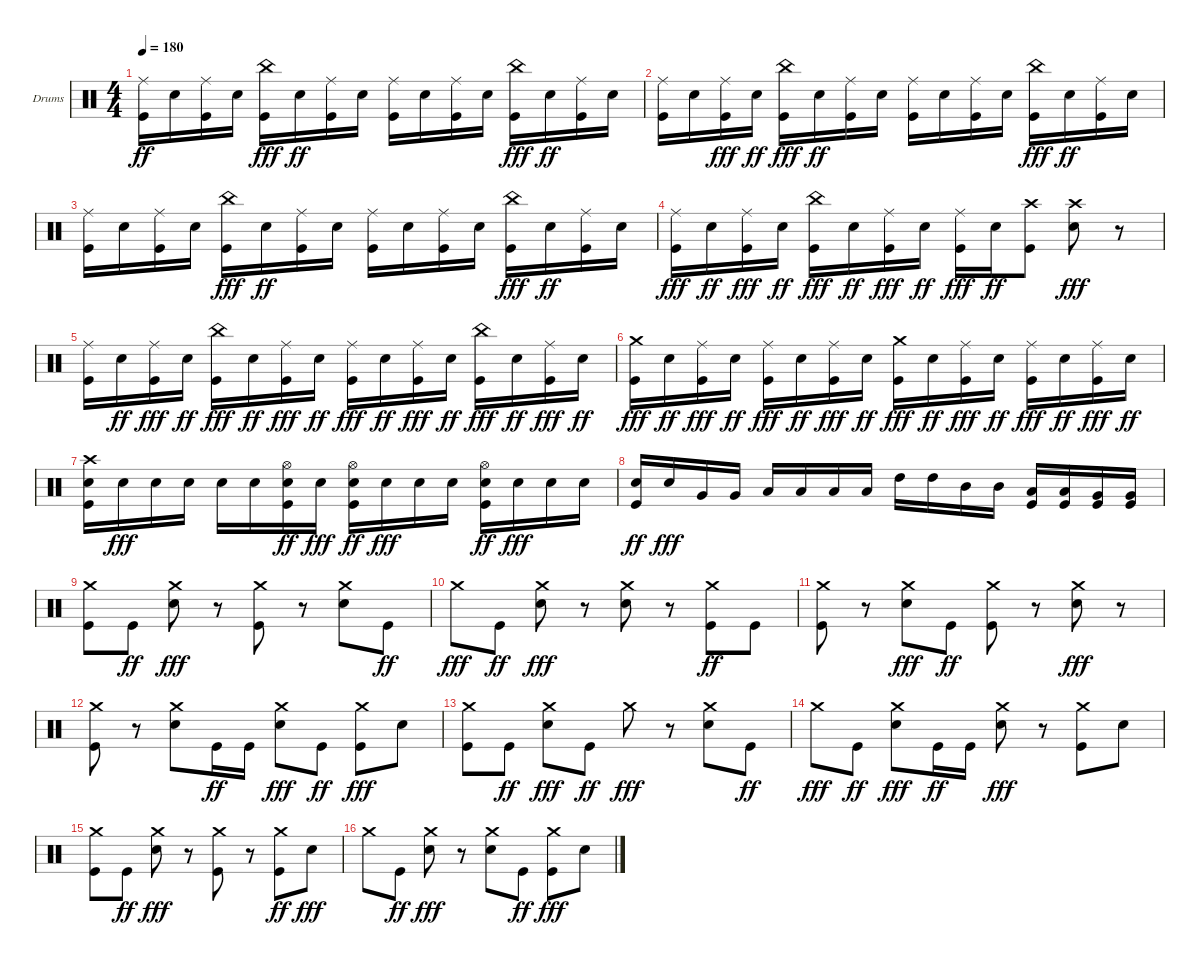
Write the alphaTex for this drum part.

\bracketExtendMode groupsimilarinstruments
\firstSystemTrackNameOrientation horizontal
\otherSystemsTrackNameOrientation horizontal
\track ("Drumkit" "Drums") {instrument percussion}
\staff {score}
\articulation defaults
\ts (4 4)
\tempo 180
\clef neutral
\ks c
("Kick (hit)" "Ride (middle)").16{dy ff} "Snare (hit) 2".16 ("Kick (hit)" "Ride (middle)").16 "Snare (hit) 2".16 ("China (hit)" "Kick (hit)").16{dy fff} "Snare (hit) 2".16{dy ff} ("Kick (hit)" "Ride (middle)").16 "Snare (hit) 2".16 ("Kick (hit)" "Ride (middle)").16 "Snare (hit) 2".16 ("Kick (hit)" "Ride (middle)").16 "Snare (hit) 2".16 ("China (hit)" "Kick (hit)").16{dy fff} "Snare (hit) 2".16{dy ff} ("Kick (hit)" "Ride (middle)").16 "Snare (hit) 2".16 |
("Kick (hit)" "Ride (middle)").16 "Snare (hit) 2".16 ("Ride (middle)" "Kick (hit)").16{dy fff} "Snare (hit) 2".16{dy ff} ("China (hit)" "Kick (hit)").16{dy fff} "Snare (hit) 2".16{dy ff} ("Kick (hit)" "Ride (middle)").16 "Snare (hit) 2".16 ("Kick (hit)" "Ride (middle)").16 "Snare (hit) 2".16 ("Kick (hit)" "Ride (middle)").16 "Snare (hit) 2".16 ("China (hit)" "Kick (hit)").16{dy fff} "Snare (hit) 2".16{dy ff} ("Kick (hit)" "Ride (middle)").16 "Snare (hit) 2".16 |
("Kick (hit)" "Ride (middle)").16 "Snare (hit) 2".16 ("Kick (hit)" "Ride (middle)").16 "Snare (hit) 2".16 ("China (hit)" "Kick (hit)").16{dy fff} "Snare (hit) 2".16{dy ff} ("Kick (hit)" "Ride (middle)").16 "Snare (hit) 2".16 ("Kick (hit)" "Ride (middle)").16 "Snare (hit) 2".16 ("Kick (hit)" "Ride (middle)").16 "Snare (hit) 2".16 ("China (hit)" "Kick (hit)").16{dy fff} "Snare (hit) 2".16{dy ff} ("Kick (hit)" "Ride (middle)").16 "Snare (hit) 2".16 |
("Ride (middle)" "Kick (hit)").16{dy fff} "Snare (hit) 2".16{dy ff} ("Ride (middle)" "Kick (hit)").16{dy fff} "Snare (hit) 2".16{dy ff} ("China (hit)" "Kick (hit)").16{dy fff} "Snare (hit) 2".16{dy ff} ("Ride (middle)" "Kick (hit)").16{dy fff} "Snare (hit) 2".16{dy ff} ("Ride (middle)" "Kick (hit)").16{dy fff} "Snare (hit) 2".16{dy ff} ("Kick (hit)" "Crash high (hit)").8 ("Snare (hit) 2" "Crash high (hit)").8{dy fff} r.8 |
("Ride (middle)" "Kick (hit)").16 "Snare (hit) 2".16{dy ff} ("Ride (middle)" "Kick (hit)").16{dy fff} "Snare (hit) 2".16{dy ff} ("China (hit)" "Kick (hit)").16{dy fff} "Snare (hit) 2".16{dy ff} ("Ride (middle)" "Kick (hit)").16{dy fff} "Snare (hit) 2".16{dy ff} ("Ride (middle)" "Kick (hit)").16{dy fff} "Snare (hit) 2".16{dy ff} ("Ride (middle)" "Kick (hit)").16{dy fff} "Snare (hit) 2".16{dy ff} ("China (hit)" "Kick (hit)").16{dy fff} "Snare (hit) 2".16{dy ff} ("Ride (middle)" "Kick (hit)").16{dy fff} "Snare (hit) 2".16{dy ff} |
("Crash medium (hit)" "Kick (hit)").16{dy fff} "Snare (hit) 2".16{dy ff} ("Ride (middle)" "Kick (hit)").16{dy fff} "Snare (hit) 2".16{dy ff} ("Ride (middle)" "Kick (hit)").16{dy fff} "Snare (hit) 2".16{dy ff} ("Ride (middle)" "Kick (hit)").16{dy fff} "Snare (hit) 2".16{dy ff} ("Crash medium (hit)" "Kick (hit)").16{dy fff} "Snare (hit) 2".16{dy ff} ("Ride (middle)" "Kick (hit)").16{dy fff} "Snare (hit) 2".16{dy ff} ("Ride (middle)" "Kick (hit)").16{dy fff} "Snare (hit) 2".16{dy ff} ("Ride (middle)" "Kick (hit)").16{dy fff} "Snare (hit) 2".16{dy ff} |
("Kick (hit)" "Crash high (hit)" "Snare (hit) 2").16 "Snare (hit) 2".16{dy fff} "Snare (hit) 2".16 "Snare (hit) 2".16 "Snare (hit) 2".16 "Snare (hit) 2".16 ("Kick (hit)" "Hi-Hat (open)" "Snare (hit) 2").16{dy ff} "Snare (hit) 2".16{dy fff} ("Kick (hit)" "Hi-Hat (open)" "Snare (hit) 2").16{dy ff} "Snare (hit) 2".16{dy fff} "Snare (hit) 2".16 "Snare (hit) 2".16 ("Kick (hit)" "Hi-Hat (open)" "Snare (hit) 2").16{dy ff} "Snare (hit) 2".16{dy fff} "Snare (hit) 2".16 "Snare (hit) 2".16 |
("Kick (hit)" "Snare (hit) 2").16{dy ff} "Snare (hit) 2".16{dy fff} "Very Low Tom (hit)".16 "Very Low Tom (hit)".16 "Low Tom (hit)".16 "Low Tom (hit)".16 "Low Tom (hit)".16 "Low Tom (hit)".16 "High Tom (hit)".16 "High Tom (hit)".16 "Mid Tom (hit)".16 "Mid Tom (hit)".16 ("Low Tom (hit)" "Kick (hit)").16 ("Low Tom (hit)" "Kick (hit)").16 ("Very Low Tom (hit)" "Kick (hit)").16 ("Very Low Tom (hit)" "Kick (hit)").16 |
("Crash medium (hit)" "Kick (hit)").8 "Kick (hit)".8{dy ff} ("Crash medium (hit)" "Snare (hit) 2").8{dy fff} r.8 ("Crash medium (hit)" "Kick (hit)").8 r.8 ("Crash medium (hit)" "Snare (hit) 2").8 "Kick (hit)".8{dy ff} |
"Crash medium (hit)".8{dy fff} "Kick (hit)".8{dy ff} ("Crash medium (hit)" "Snare (hit) 2").8{dy fff} r.8 ("Crash medium (hit)" "Snare (hit) 2").8 r.8 ("Kick (hit)" "Crash medium (hit)").8{dy ff} "Kick (hit)".8 |
("Kick (hit)" "Crash medium (hit)").8 r.8 ("Snare (hit) 2" "Crash medium (hit)").8{dy fff} "Kick (hit)".8{dy ff} ("Kick (hit)" "Crash medium (hit)").8 r.8 ("Snare (hit) 2" "Crash medium (hit)").8{dy fff} r.8 |
("Crash medium (hit)" "Kick (hit)").8 r.8 ("Snare (hit) 2" "Crash medium (hit)").8 "Kick (hit)".16{dy ff} "Kick (hit)".16 ("Snare (hit) 2" "Crash medium (hit)").8{dy fff} "Kick (hit)".8{dy ff} ("Crash medium (hit)" "Kick (hit)").8{dy fff} "Snare (hit) 2".8 |
("Crash medium (hit)" "Kick (hit)").8 "Kick (hit)".8{dy ff} ("Crash medium (hit)" "Snare (hit) 2").8{dy fff} "Kick (hit)".8{dy ff} "Crash medium (hit)".8{dy fff} r.8 ("Crash medium (hit)" "Snare (hit) 2").8 "Kick (hit)".8{dy ff} |
"Crash medium (hit)".8{dy fff} "Kick (hit)".8{dy ff} ("Crash medium (hit)" "Snare (hit) 2").8{dy fff} "Kick (hit)".16{dy ff} "Kick (hit)".16 ("Crash medium (hit)" "Snare (hit) 2").8{dy fff} r.8 ("Crash medium (hit)" "Kick (hit)").8 "Snare (hit) 2".8 |
("Crash medium (hit)" "Kick (hit)").8 "Kick (hit)".8{dy ff} ("Crash medium (hit)" "Snare (hit) 2").8{dy fff} r.8 ("Crash medium (hit)" "Kick (hit)").8 r.8 ("Kick (hit)" "Crash medium (hit)").8{dy ff} "Snare (hit) 2".8{dy fff} |
"Crash medium (hit)".8 "Kick (hit)".8{dy ff} ("Crash medium (hit)" "Snare (hit) 2").8{dy fff} r.8 ("Snare (hit) 2" "Crash medium (hit)").8 "Kick (hit)".8{dy ff} ("Crash medium (hit)" "Kick (hit)").8{dy fff} "Snare (hit) 2".8
